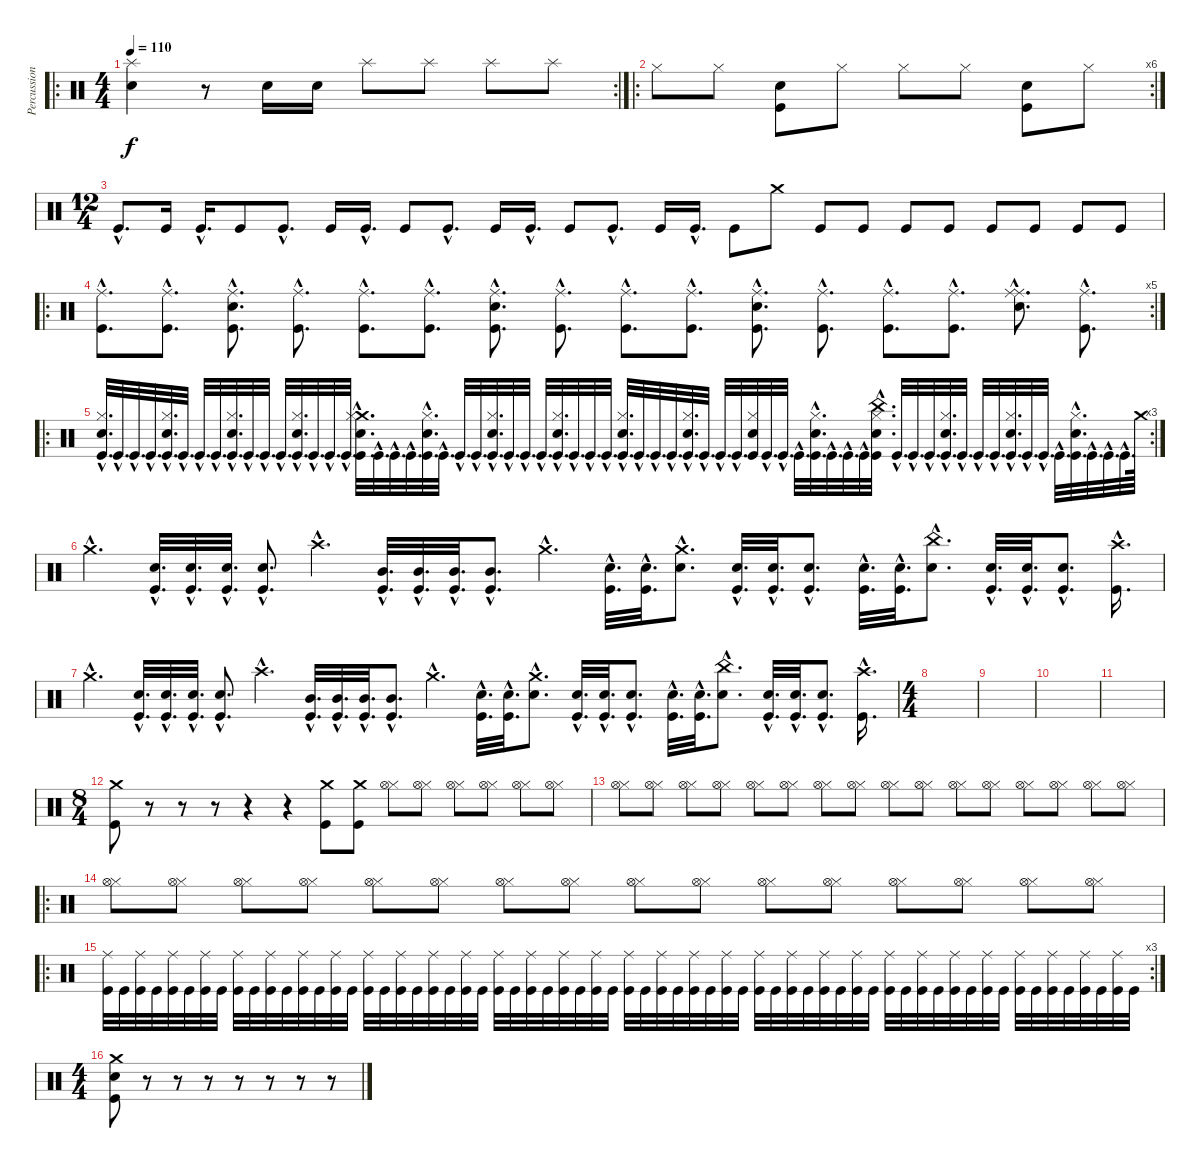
\track ("Percussion" "Percussion") {instrument percussion}
\staff {score}
\articulation defaults
\ro
\rc 2
\ts (4 4)
\tempo 110
\clef neutral
\ks c
("Splash (hit)" "Snare (hit) 2").4{dy f} r.8 "Snare (hit) 2".16 "Snare (hit) 2".16 "Splash (hit)".8 "Splash (hit)".8 "Splash (hit)".8 "Splash (hit)".8 |
\ro
\rc 6 "Hi-Hat (closed)".8 "Hi-Hat (closed)".8
("Snare (hit) 2" "Kick (hit)").8 "Hi-Hat (closed)".8 "Hi-Hat (closed)".8 "Hi-Hat (closed)".8 ("Snare (hit) 2" "Kick (hit)").8 "Hi-Hat (closed)".8 |
\ts (12 4)
"Kick (hit)"{hac}.8{d} "Kick (hit)".16 "Kick (hit)"{hac}.16{d} "Kick (hit)".8 "Kick (hit)"{hac}.8{d} "Kick (hit)".16 "Kick (hit)"{hac}.16{d} "Kick (hit)".8 "Kick (hit)"{hac}.8{d} "Kick (hit)".16 "Kick (hit)"{hac}.16{d} "Kick (hit)".8 "Kick (hit)"{hac}.8{d} "Kick (hit)".16 "Kick (hit)"{hac}.16{d} "Kick (hit)".8 "Crash medium (hit)".8 "Kick (hit)".8 "Kick (hit)".8 "Kick (hit)".8 "Kick (hit)".8 "Kick (hit)".8 "Kick (hit)".8 "Kick (hit)".8 "Kick (hit)".8 |
\ro
\rc 5
("Kick (hit)"{hac} "Ride (middle)"{hac}).8{d} ("Kick (hit)"{hac} "Ride (middle)"{hac}).8{d} ("Kick (hit)"{hac} "Snare (hit) 2"{hac} "Ride (middle)"{hac}).8{d} ("Kick (hit)"{hac} "Ride (middle)"{hac}).8{d} ("Kick (hit)"{hac} "Ride (middle)"{hac}).8{d} ("Ride (middle)"{hac} "Kick (hit)"{hac}).8{d} ("Ride (middle)"{hac} "Snare (hit) 2"{hac} "Kick (hit)"{hac}).8{d} ("Kick (hit)"{hac} "Ride (middle)"{hac}).8{d} ("Kick (hit)"{hac} "Ride (middle)"{hac}).8{d} ("Kick (hit)"{hac} "Ride (middle)"{hac}).8{d} ("Ride (middle)"{hac} "Snare (hit) 2"{hac} "Kick (hit)"{hac}).8{d} ("Kick (hit)"{hac} "Ride (middle)"{hac}).8{d} ("Kick (hit)"{hac} "Ride (middle)"{hac}).8{d} ("Kick (hit)"{hac} "Ride (middle)"{hac}).8{d} ("Ride (middle)"{hac} "Snare (hit) 2"{hac} "Ride (middle)"{hac}).8{d} ("Kick (hit)"{hac} "Ride (middle)"{hac}).8{d} |
\ro
\rc 3
("Snare (hit) 2"{hac} "Hi-Hat (closed)"{hac} "Kick (hit)"{hac}).32{d} "Kick (hit)"{hac}.32{d} "Kick (hit)"{hac}.32{d} "Kick (hit)"{hac}.32{d} ("Snare (hit) 2"{hac} "Hi-Hat (closed)"{hac} "Kick (hit)"{hac}).32{d} "Kick (hit)"{hac}.32{d} "Kick (hit)"{hac}.32{d} "Kick (hit)"{hac}.32{d} ("Snare (hit) 2"{hac} "Hi-Hat (closed)"{hac} "Kick (hit)"{hac}).32{d} "Kick (hit)"{hac}.32{d} "Kick (hit)"{hac}.32{d} "Kick (hit)"{hac}.32{d} ("Snare (hit) 2"{hac} "Hi-Hat (closed)"{hac} "Kick (hit)"{hac}).32{d} "Kick (hit)"{hac}.32{d} "Kick (hit)"{hac}.32{d} "Kick (hit)"{hac}.32{d} ("Crash medium (hit)"{hac} "Snare (hit) 2"{hac} "Hi-Hat (closed)"{hac} "Kick (hit)"{hac}).32{d} "Kick (hit)"{hac}.32{d} "Kick (hit)"{hac}.32{d} "Kick (hit)"{hac}.32{d} ("Snare (hit) 2"{hac} "Hi-Hat (closed)"{hac} "Kick (hit)"{hac}).32{d} "Kick (hit)"{hac}.32{d} "Kick (hit)"{hac}.32{d} "Kick (hit)"{hac}.32{d} ("Snare (hit) 2"{hac} "Hi-Hat (closed)"{hac} "Kick (hit)"{hac}).32{d} "Kick (hit)"{hac}.32{d} "Kick (hit)"{hac}.32{d} "Kick (hit)"{hac}.32{d} ("Snare (hit) 2"{hac} "Hi-Hat (closed)"{hac} "Kick (hit)"{hac}).32{d} "Kick (hit)"{hac}.32{d} "Kick (hit)"{hac}.32{d} "Kick (hit)"{hac}.32{d} ("Snare (hit) 2"{hac} "Hi-Hat (closed)"{hac} "Kick (hit)"{hac}).32{d} "Kick (hit)"{hac}.32{d} "Kick (hit)"{hac}.32{d} "Kick (hit)"{hac}.32{d} ("Snare (hit) 2"{hac} "Hi-Hat (closed)"{hac} "Kick (hit)"{hac}).32{d} "Kick (hit)"{hac}.32{d} "Kick (hit)"{hac}.32{d} "Kick (hit)"{hac}.32{d} ("Snare (hit) 2" "Hi-Hat (closed)" "Kick (hit)").32 "Kick (hit)"{hac}.32{d} "Kick (hit)"{hac}.32{d} "Kick (hit)"{hac}.32{d} ("Snare (hit) 2"{hac} "Hi-Hat (closed)"{hac} "Kick (hit)"{hac}).32{d} "Kick (hit)"{hac}.32{d} "Kick (hit)"{hac}.32{d} "Kick (hit)"{hac}.32{d} ("China (hit)"{hac} "Snare (hit) 2"{hac} "Hi-Hat (closed)"{hac} "Kick (hit)"{hac}).32{d} "Kick (hit)"{hac}.32{d} "Kick (hit)"{hac}.32{d} "Kick (hit)"{hac}.32{d} ("Snare (hit) 2"{hac} "Hi-Hat (closed)"{hac} "Kick (hit)"{hac}).32{d} "Kick (hit)"{hac}.32{d} "Kick (hit)"{hac}.32{d} "Kick (hit)"{hac}.32{d} ("Snare (hit) 2"{hac} "Hi-Hat (closed)"{hac} "Kick (hit)"{hac}).32{d} "Kick (hit)"{hac}.32{d} "Kick (hit)"{hac}.32{d} "Kick (hit)"{hac}.32{d} ("Hi-Hat (closed)"{hac} "Snare (hit) 2"{hac} "Kick (hit)"{hac}).32{d} "Kick (hit)"{hac}.32{d} "Kick (hit)"{hac}.32{d} "Kick (hit)"{hac}.32{d} "Crash medium (hit)".64 |
"Crash medium (hit)"{hac}.4{d} ("Kick (hit)"{hac} "Snare (hit) 2"{hac}).32{d} ("Kick (hit)"{hac} "Snare (hit) 2"{hac}).32{d} ("Kick (hit)"{hac} "Snare (hit) 2"{hac}).32{d} ("Kick (hit)"{hac} "Snare (hit) 2"{hac}).8{d} "Crash high (hit)"{hac}.4{d} ("Kick (hit)"{hac} "Mid Tom (hit)"{hac}).32{d} ("Kick (hit)"{hac} "Mid Tom (hit)"{hac}).32{d} ("Kick (hit)"{hac} "Mid Tom (hit)"{hac}).32{d} ("Kick (hit)"{hac} "Mid Tom (hit)"{hac}).8{d} "Crash medium (hit)"{hac}.4{d} ("Kick (hit)"{hac} "Snare (hit) 2"{hac}).32{d} ("Kick (hit)"{hac} "Snare (hit) 2"{hac}).32{d} ("Crash medium (hit)"{hac} "Snare (hit) 2"{hac}).8{d} ("Kick (hit)"{hac} "Snare (hit) 2"{hac}).32{d} ("Kick (hit)"{hac} "Snare (hit) 2"{hac}).32{d} ("Kick (hit)"{hac} "Snare (hit) 2"{hac}).8{d} ("Kick (hit)"{hac} "Snare (hit) 2"{hac}).32{d} ("Kick (hit)"{hac} "Snare (hit) 2"{hac}).32{d} ("China (hit)"{hac} "Snare (hit) 2"{hac}).8{d} ("Kick (hit)"{hac} "Snare (hit) 2"{hac}).32{d} ("Kick (hit)"{hac} "Snare (hit) 2"{hac}).32{d} ("Kick (hit)"{hac} "Snare (hit) 2"{hac}).8{d} ("Kick (hit)"{hac} "Crash high (hit)"{hac}).16{d} |
"Crash medium (hit)"{hac}.4{d} ("Kick (hit)"{hac} "Snare (hit) 2"{hac}).32{d} ("Kick (hit)"{hac} "Snare (hit) 2"{hac}).32{d} ("Kick (hit)"{hac} "Snare (hit) 2"{hac}).32{d} ("Kick (hit)"{hac} "Snare (hit) 2"{hac}).8{d} "Crash high (hit)"{hac}.4{d} ("Kick (hit)"{hac} "Mid Tom (hit)"{hac}).32{d} ("Kick (hit)"{hac} "Mid Tom (hit)"{hac}).32{d} ("Kick (hit)"{hac} "Mid Tom (hit)"{hac}).32{d} ("Kick (hit)"{hac} "Mid Tom (hit)"{hac}).8{d} "Crash medium (hit)"{hac}.4{d} ("Kick (hit)"{hac} "Snare (hit) 2"{hac}).32{d} ("Kick (hit)"{hac} "Snare (hit) 2"{hac}).32{d} ("Crash medium (hit)"{hac} "Snare (hit) 2"{hac}).8{d} ("Kick (hit)"{hac} "Snare (hit) 2"{hac}).32{d} ("Kick (hit)"{hac} "Snare (hit) 2"{hac}).32{d} ("Kick (hit)"{hac} "Snare (hit) 2"{hac}).8{d} ("Kick (hit)"{hac} "Snare (hit) 2"{hac}).32{d} ("Kick (hit)"{hac} "Snare (hit) 2"{hac}).32{d} ("China (hit)"{hac} "Snare (hit) 2"{hac}).8{d} ("Kick (hit)"{hac} "Snare (hit) 2"{hac}).32{d} ("Kick (hit)"{hac} "Snare (hit) 2"{hac}).32{d} ("Kick (hit)"{hac} "Snare (hit) 2"{hac}).8{d} ("Kick (hit)"{hac} "Crash high (hit)"{hac}).16{d} |
\ts (4 4)
|
|
|
|
\ts (8 4)
("Kick (hit)" "Crash medium (hit)").8 r.8 r.8 r.8 r.4 r.4 ("Crash medium (hit)" "Kick (hit)").8 ("Crash medium (hit)" "Kick (hit)").8 ("Hi-Hat (closed)" "Hi-Hat (open)").8 ("Hi-Hat (closed)" "Hi-Hat (open)").8 ("Hi-Hat (closed)" "Hi-Hat (open)").8 ("Hi-Hat (closed)" "Hi-Hat (open)").8 ("Hi-Hat (closed)" "Hi-Hat (open)").8 ("Hi-Hat (closed)" "Hi-Hat (open)").8 |
("Hi-Hat (closed)" "Hi-Hat (open)").8 ("Hi-Hat (closed)" "Hi-Hat (open)").8 ("Hi-Hat (closed)" "Hi-Hat (open)").8 ("Hi-Hat (closed)" "Hi-Hat (open)").8 ("Hi-Hat (closed)" "Hi-Hat (open)").8 ("Hi-Hat (closed)" "Hi-Hat (open)").8 ("Hi-Hat (closed)" "Hi-Hat (open)").8 ("Hi-Hat (closed)" "Hi-Hat (open)").8 ("Hi-Hat (closed)" "Hi-Hat (open)").8 ("Hi-Hat (closed)" "Hi-Hat (open)").8 ("Hi-Hat (closed)" "Hi-Hat (open)").8 ("Hi-Hat (closed)" "Hi-Hat (open)").8 ("Hi-Hat (closed)" "Hi-Hat (open)").8 ("Hi-Hat (closed)" "Hi-Hat (open)").8 ("Hi-Hat (closed)" "Hi-Hat (open)").8 ("Hi-Hat (closed)" "Hi-Hat (open)").8 |
\ro
("Hi-Hat (closed)" "Hi-Hat (open)").8 ("Hi-Hat (closed)" "Hi-Hat (open)").8 ("Hi-Hat (closed)" "Hi-Hat (open)").8 ("Hi-Hat (closed)" "Hi-Hat (open)").8 ("Hi-Hat (closed)" "Hi-Hat (open)").8 ("Hi-Hat (closed)" "Hi-Hat (open)").8 ("Hi-Hat (closed)" "Hi-Hat (open)").8 ("Hi-Hat (closed)" "Hi-Hat (open)").8 ("Hi-Hat (closed)" "Hi-Hat (open)").8 ("Hi-Hat (closed)" "Hi-Hat (open)").8 ("Hi-Hat (closed)" "Hi-Hat (open)").8 ("Hi-Hat (closed)" "Hi-Hat (open)").8 ("Hi-Hat (closed)" "Hi-Hat (open)").8 ("Hi-Hat (closed)" "Hi-Hat (open)").8 ("Hi-Hat (closed)" "Hi-Hat (open)").8 ("Hi-Hat (closed)" "Hi-Hat (open)").8 |
\ro
\rc 3
("Ride (middle)" "Kick (hit)").32 "Kick (hit)".32 ("Ride (middle)" "Kick (hit)").32 "Kick (hit)".32 ("Ride (middle)" "Kick (hit)").32 "Kick (hit)".32 ("Ride (middle)" "Kick (hit)").32 "Kick (hit)".32 ("Ride (middle)" "Kick (hit)").32 "Kick (hit)".32 ("Ride (middle)" "Kick (hit)").32 "Kick (hit)".32 ("Ride (middle)" "Kick (hit)").32 "Kick (hit)".32 ("Ride (middle)" "Kick (hit)").32 "Kick (hit)".32 ("Ride (middle)" "Kick (hit)").32 "Kick (hit)".32 ("Ride (middle)" "Kick (hit)").32 "Kick (hit)".32 ("Ride (middle)" "Kick (hit)").32 "Kick (hit)".32 ("Ride (middle)" "Kick (hit)").32 "Kick (hit)".32 ("Ride (middle)" "Kick (hit)").32 "Kick (hit)".32 ("Ride (middle)" "Kick (hit)").32 "Kick (hit)".32 ("Ride (middle)" "Kick (hit)").32 "Kick (hit)".32 ("Ride (middle)" "Kick (hit)").32 "Kick (hit)".32 ("Ride (middle)" "Kick (hit)").32 "Kick (hit)".32 ("Ride (middle)" "Kick (hit)").32 "Kick (hit)".32 ("Ride (middle)" "Kick (hit)").32 "Kick (hit)".32 ("Ride (middle)" "Kick (hit)").32 "Kick (hit)".32 ("Ride (middle)" "Kick (hit)").32 "Kick (hit)".32 ("Ride (middle)" "Kick (hit)").32 "Kick (hit)".32 ("Ride (middle)" "Kick (hit)").32 "Kick (hit)".32 ("Ride (middle)" "Kick (hit)").32 "Kick (hit)".32 ("Ride (middle)" "Kick (hit)").32 "Kick (hit)".32 ("Ride (middle)" "Kick (hit)").32 "Kick (hit)".32 ("Ride (middle)" "Kick (hit)").32 "Kick (hit)".32 ("Ride (middle)" "Kick (hit)").32 "Kick (hit)".32 ("Ride (middle)" "Kick (hit)").32 "Kick (hit)".32 ("Ride (middle)" "Kick (hit)").32 "Kick (hit)".32 ("Ride (middle)" "Kick (hit)").32 "Kick (hit)".32 ("Ride (middle)" "Kick (hit)").32 "Kick (hit)".32 |
\ts (4 4)
("Snare (hit) 2" "Kick (hit)" "Crash medium (hit)").8 r.8 r.8 r.8 r.8 r.8 r.8 r.8
